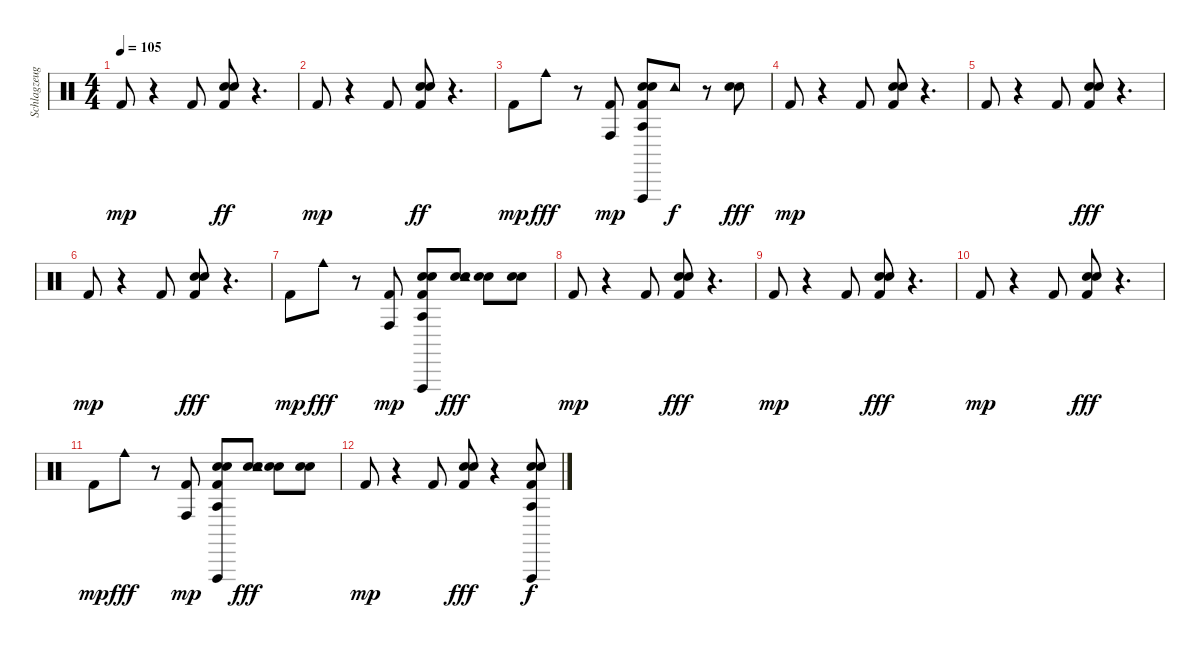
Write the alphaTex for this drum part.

\track ("Schlagzeug" "Schlagzeug") {instrument percussion}
\staff {score}
\articulation defaults
\ts (4 4)
\tempo 105
\clef neutral
\ks c "Kick (hit) 2".8{dy mp}
r.4 "Kick (hit) 2".8 ("Electric Snare (hit)" "Kick (hit) 2" "Snare (hit) 2").8{dy ff} r.4{d} |
"Kick (hit) 2".8{dy mp} r.4 "Kick (hit) 2".8 ("Electric Snare (hit)" "Kick (hit) 2" "Snare (hit) 2").8{dy ff} r.4{d} |
"Kick (hit) 2".8{dy mp} "Cowbell medium (hit)".8{dy fff} r.8 ("Kick (hit) 2" "Conga high (hit)").8{dy mp} ("Snare (hit) 2" "Electric Snare (hit)" "Kick (hit) 2" "Agogo tow (hit)" "Vibraslap (hit)").8 "Tambourine (hit)".8{dy f} r.8 ("Snare (hit) 2" "Electric Snare (hit)").8{dy fff} |
"Kick (hit) 2".8{dy mp} r.4 "Kick (hit) 2".8 ("Electric Snare (hit)" "Snare (hit) 2" "Kick (hit) 2").8 r.4{d} |
"Kick (hit) 2".8 r.4 "Kick (hit) 2".8 ("Kick (hit) 2" "Snare (hit) 2" "Electric Snare (hit)").8{dy fff} r.4{d} |
"Kick (hit) 2".8{dy mp} r.4 "Kick (hit) 2".8 ("Kick (hit) 2" "Snare (hit) 2" "Electric Snare (hit)").8{dy fff} r.4{d} |
"Kick (hit) 2".8{dy mp} "Cowbell medium (hit)".8{dy fff} r.8 ("Kick (hit) 2" "Conga high (hit)").8{dy mp} ("Snare (hit) 2" "Electric Snare (hit)" "Kick (hit) 2" "Agogo tow (hit)" "Vibraslap (hit)").8 ("Snare (hit) 2" "Electric Snare (hit)" "Tambourine (hit)").8{dy fff} ("Snare (hit) 2" "Electric Snare (hit)").8 ("Snare (hit) 2" "Electric Snare (hit)").8 |
"Kick (hit) 2".8{dy mp} r.4 "Kick (hit) 2".8 ("Kick (hit) 2" "Snare (hit) 2" "Electric Snare (hit)").8{dy fff} r.4{d} |
"Kick (hit) 2".8{dy mp} r.4 "Kick (hit) 2".8 ("Kick (hit) 2" "Snare (hit) 2" "Electric Snare (hit)").8{dy fff} r.4{d} |
"Kick (hit) 2".8{dy mp} r.4 "Kick (hit) 2".8 ("Kick (hit) 2" "Snare (hit) 2" "Electric Snare (hit)").8{dy fff} r.4{d} |
"Kick (hit) 2".8{dy mp} "Cowbell medium (hit)".8{dy fff} r.8 ("Kick (hit) 2" "Conga high (hit)").8{dy mp} ("Snare (hit) 2" "Electric Snare (hit)" "Kick (hit) 2" "Agogo tow (hit)" "Vibraslap (hit)").8 ("Snare (hit) 2" "Electric Snare (hit)" "Tambourine (hit)").8{dy fff} ("Snare (hit) 2" "Electric Snare (hit)").8 ("Snare (hit) 2" "Electric Snare (hit)").8 |
"Kick (hit) 2".8{dy mp} r.4 "Kick (hit) 2".8 ("Kick (hit) 2" "Snare (hit) 2" "Electric Snare (hit)").8{dy fff} r.4 ("Snare (hit) 2" "Electric Snare (hit)" "Kick (hit) 2" "Agogo tow (hit)" "Vibraslap (hit)").8{dy f}
